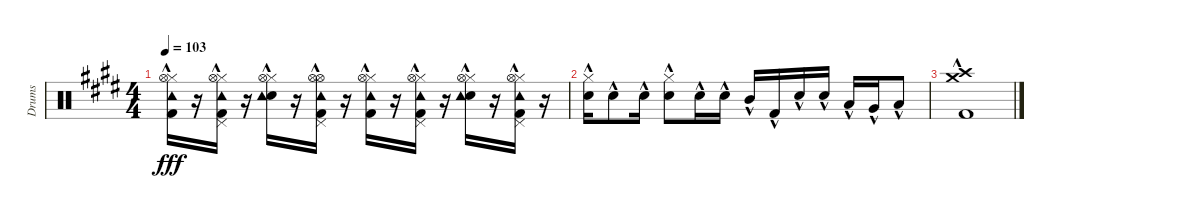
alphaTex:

\track ("Drums" "Drums") {instrument percussion}
\staff {score}
\articulation defaults
\ts (4 4)
\tempo 103
\clef neutral
\ks e
("Kick (hit) 2"{hac} "Hi-Hat (closed)"{hac} "Tambourine (hit)"{hac} "Hi-Hat (open)"{hac}).16{dy fff} r.16 ("Kick (hit) 2"{hac} "Hi-Hat (closed)"{hac} "Tambourine (hit)"{hac} "Hi-Hat (open)"{hac} "Pedal Hi-Hat (hit)"{hac}).16 r.16 ("Snare (hit) 2"{hac} "Hi-Hat (closed)"{hac} "Tambourine (hit)"{hac} "Hi-Hat (open)"{hac}).16 r.16 ("Kick (hit) 2"{hac} "Hi-Hat (open)"{hac} "Tambourine (hit)"{hac} "Hi-Hat (open)"{hac} "Pedal Hi-Hat (hit)"{hac}).16 r.16 ("Kick (hit) 2"{hac} "Hi-Hat (closed)"{hac} "Tambourine (hit)"{hac} "Hi-Hat (open)"{hac}).16 r.16 ("Kick (hit) 2"{hac} "Hi-Hat (closed)"{hac} "Tambourine (hit)"{hac} "Hi-Hat (open)"{hac} "Pedal Hi-Hat (hit)"{hac}).16 r.16 ("Snare (hit) 2"{hac} "Hi-Hat (closed)"{hac} "Tambourine (hit)"{hac} "Hi-Hat (open)"{hac}).16 r.16 ("Kick (hit) 2"{hac} "Hi-Hat (closed)"{hac} "Tambourine (hit)"{hac} "Hi-Hat (open)"{hac} "Pedal Hi-Hat (hit)"{hac}).16 r.16 |
("Hi-Hat (closed)"{hac} "Electric Snare (hit)"{hac}).16 "Electric Snare (hit)"{hac}.8 "Electric Snare (hit)"{hac}.16 ("Hi-Hat (closed)"{hac} "Electric Snare (hit)"{hac}).8 "Electric Snare (hit)"{hac}.16 "Electric Snare (hit)"{hac}.16 "Mid Tom (hit)"{hac}.16 "Kick (hit) 2"{hac}.16 "Electric Snare (hit)"{hac}.16 "Electric Snare (hit)"{hac}.16 "Low Tom (hit)"{hac}.16 "Very Low Tom (hit)"{hac}.16 "Low Floor Tom (hit)"{hac}.8 |
("Crash high (hit)"{hac} "Crash medium (hit)" "Kick (hit) 2").1
